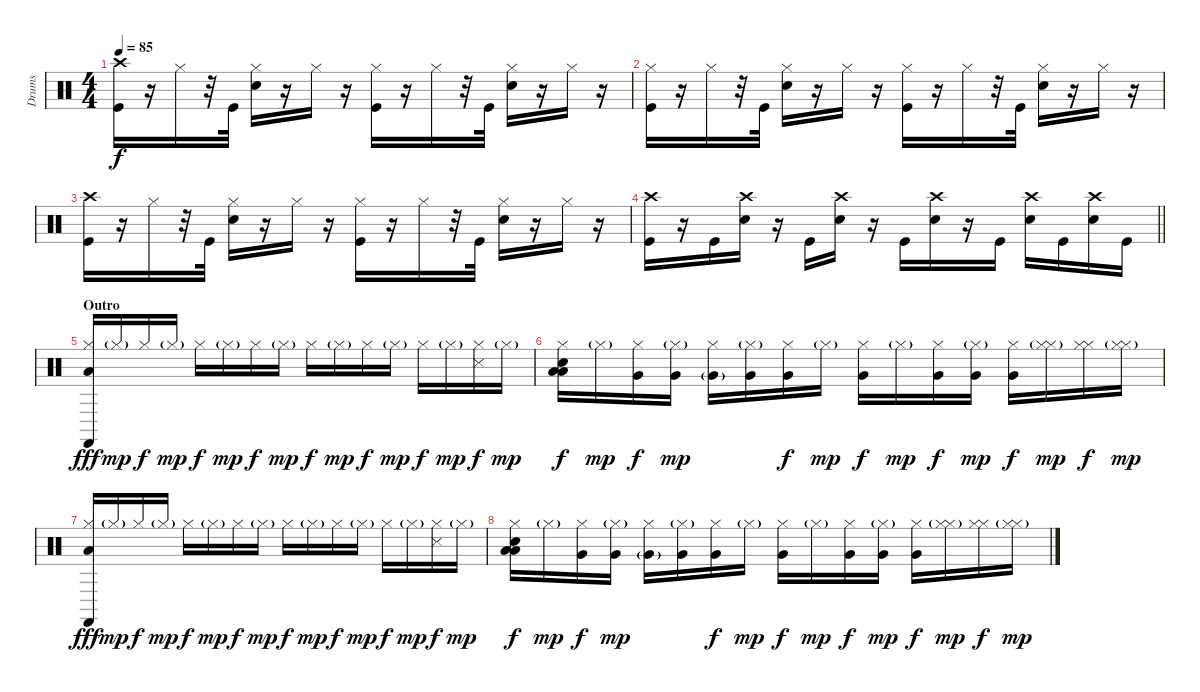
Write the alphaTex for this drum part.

\track ("Drums" "Drums") {instrument percussion}
\staff {score}
\articulation defaults
\ts (4 4)
\tempo 85
\clef neutral
\ks c
("Crash high (hit)" "Kick (hit)").16{dy f} r.16 "Hi-Hat (closed)".16 r.32 "Kick (hit)".32 ("Hi-Hat (closed)" "Snare (hit) 2").16 r.16 "Hi-Hat (closed)".16 r.16 ("Hi-Hat (closed)" "Kick (hit)").16 r.16 "Hi-Hat (closed)".16 r.32 "Kick (hit)".32 ("Hi-Hat (closed)" "Snare (hit) 2").16 r.16 "Hi-Hat (closed)".16 r.16 |
("Hi-Hat (closed)" "Kick (hit)").16 r.16 "Hi-Hat (closed)".16 r.32 "Kick (hit)".32 ("Hi-Hat (closed)" "Snare (hit) 2").16 r.16 "Hi-Hat (closed)".16 r.16 ("Hi-Hat (closed)" "Kick (hit)").16 r.16 "Hi-Hat (closed)".16 r.32 "Kick (hit)".32 ("Hi-Hat (closed)" "Snare (hit) 2").16 r.16 "Hi-Hat (closed)".16 r.16 |
("Crash high (hit)" "Kick (hit)").16 r.16 "Hi-Hat (closed)".16 r.32 "Kick (hit)".32 ("Hi-Hat (closed)" "Snare (hit) 2").16 r.16 "Hi-Hat (closed)".16 r.16 ("Hi-Hat (closed)" "Kick (hit)").16 r.16 "Hi-Hat (closed)".16 r.32 "Kick (hit)".32 ("Hi-Hat (closed)" "Snare (hit) 2").16 r.16 "Hi-Hat (closed)".16 r.16 |
\barLineRight lightlight
("Crash high (hit)" "Kick (hit)").16 r.16 "Kick (hit)".16 ("Crash high (hit)" "Snare (hit) 2").16 r.16 "Kick (hit)".16 ("Crash high (hit)" "Snare (hit) 2").16 r.16 "Kick (hit)".16 ("Crash high (hit)" "Snare (hit) 2").16 r.16 "Kick (hit)".16 ("Crash high (hit)" "Snare (hit) 2").16 "Kick (hit)".16 ("Crash high (hit)" "Snare (hit) 2").16 "Kick (hit)".16 |
\section ("" "Outro")
("Hi-Hat (closed)" "Low Floor Tom (hit)" "Castanets (hit)").16{dy fff} "Hi-Hat (closed)"{g}.16{dy mp} "Hi-Hat (closed)".16{dy f} "Hi-Hat (closed)"{g}.16{dy mp} "Hi-Hat (closed)".16{dy f} "Hi-Hat (closed)"{g}.16{dy mp} "Hi-Hat (closed)".16{dy f} "Hi-Hat (closed)"{g}.16{dy mp} "Hi-Hat (closed)".16{dy f} "Hi-Hat (closed)"{g}.16{dy mp} "Hi-Hat (closed)".16{dy f} "Hi-Hat (closed)"{g}.16{dy mp} "Hi-Hat (closed)".16{dy f} "Hi-Hat (closed)"{g}.16{dy mp} ("Hi-Hat (closed)" "Snare (side stick) 3").16{dy f} "Hi-Hat (closed)"{g}.16{dy mp} |
("Hi-Hat (closed)" "Low Tom (hit)" "Snare (hit) 2" "Low Floor Tom (hit)").16{dy f} "Hi-Hat (closed)"{g}.16{dy mp} ("Hi-Hat (closed)" "Very Low Tom (hit)").16{dy f} ("Hi-Hat (closed)"{g} "Very Low Tom (hit)").16{dy mp} ("Hi-Hat (closed)" "Very Low Tom (hit)"{g}).16 ("Hi-Hat (closed)"{g} "Very Low Tom (hit)").16 ("Hi-Hat (closed)" "Very Low Tom (hit)").16{dy f} "Hi-Hat (closed)"{g}.16{dy mp} ("Hi-Hat (closed)" "Very Low Tom (hit)").16{dy f} "Hi-Hat (closed)"{g}.16{dy mp} ("Hi-Hat (closed)" "Very Low Tom (hit)").16{dy f} ("Hi-Hat (closed)"{g} "Very Low Tom (hit)").16{dy mp} ("Hi-Hat (closed)" "Very Low Tom (hit)").16{dy f} ("Hi-Hat (closed)"{g} "Hi-Hat (closed)").16{dy mp} ("Hi-Hat (closed)" "Hi-Hat (closed)").16{dy f} ("Hi-Hat (closed)"{g} "Hi-Hat (closed)").16{dy mp} |
("Hi-Hat (closed)" "Low Floor Tom (hit)" "Castanets (hit)").16{dy fff} "Hi-Hat (closed)"{g}.16{dy mp} "Hi-Hat (closed)".16{dy f} "Hi-Hat (closed)"{g}.16{dy mp} "Hi-Hat (closed)".16{dy f} "Hi-Hat (closed)"{g}.16{dy mp} "Hi-Hat (closed)".16{dy f} "Hi-Hat (closed)"{g}.16{dy mp} "Hi-Hat (closed)".16{dy f} "Hi-Hat (closed)"{g}.16{dy mp} "Hi-Hat (closed)".16{dy f} "Hi-Hat (closed)"{g}.16{dy mp} "Hi-Hat (closed)".16{dy f} "Hi-Hat (closed)"{g}.16{dy mp} ("Hi-Hat (closed)" "Snare (side stick) 3").16{dy f} "Hi-Hat (closed)"{g}.16{dy mp} |
("Hi-Hat (closed)" "Low Tom (hit)" "Snare (hit) 2" "Low Floor Tom (hit)").16{dy f} "Hi-Hat (closed)"{g}.16{dy mp} ("Hi-Hat (closed)" "Very Low Tom (hit)").16{dy f} ("Hi-Hat (closed)"{g} "Very Low Tom (hit)").16{dy mp} ("Hi-Hat (closed)" "Very Low Tom (hit)"{g}).16 ("Hi-Hat (closed)"{g} "Very Low Tom (hit)").16 ("Hi-Hat (closed)" "Very Low Tom (hit)").16{dy f} "Hi-Hat (closed)"{g}.16{dy mp} ("Hi-Hat (closed)" "Very Low Tom (hit)").16{dy f} "Hi-Hat (closed)"{g}.16{dy mp} ("Hi-Hat (closed)" "Very Low Tom (hit)").16{dy f} ("Hi-Hat (closed)"{g} "Very Low Tom (hit)").16{dy mp} ("Hi-Hat (closed)" "Very Low Tom (hit)").16{dy f} ("Hi-Hat (closed)"{g} "Hi-Hat (closed)").16{dy mp} ("Hi-Hat (closed)" "Hi-Hat (closed)").16{dy f} ("Hi-Hat (closed)"{g} "Hi-Hat (closed)").16{dy mp}
